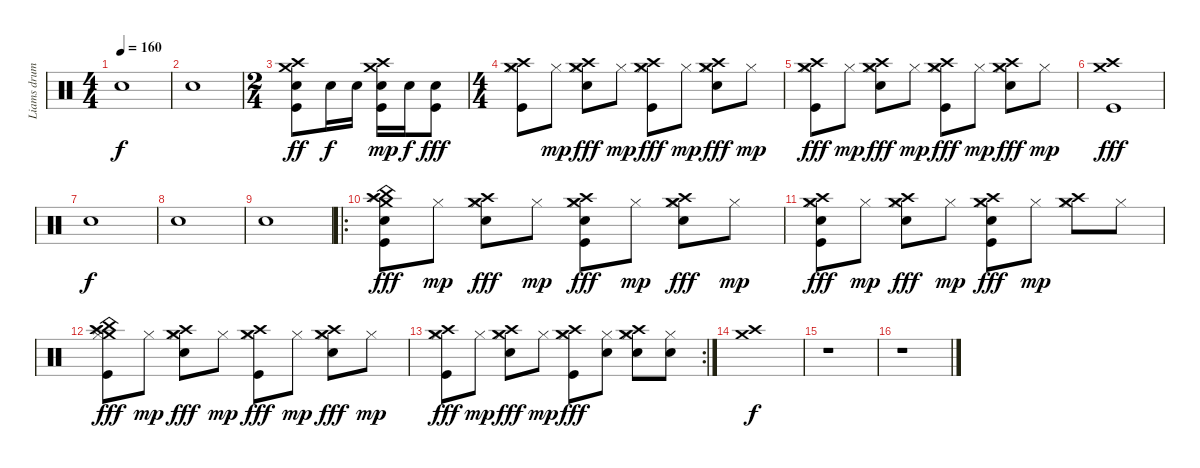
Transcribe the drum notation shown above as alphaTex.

\track ("Liams drums" "Liams drum") {instrument percussion}
\staff {score}
\articulation defaults
\ts (4 4)
\tempo 160
\clef neutral
\ks c "Snare (hit)"{x}.1{dy f}
|
"Snare (hit)"{x}.1 |
\ts (2 4)
("Crash high (hit)" "Crash medium (hit)" "Electric Snare (hit)" "Kick (hit)").8{dy ff} "Electric Snare (hit)".16{dy f} "Electric Snare (hit)".16 ("Crash high (hit)" "Crash medium (hit)" "Electric Snare (hit)" "Kick (hit)").16{dy mp} "Electric Snare (hit)".16{dy f} ("Electric Snare (hit)" "Kick (hit)").8{dy fff} |
\ts (4 4)
("Crash high (hit)" "Crash medium (hit)" "Hi-Hat (closed)" "Kick (hit)").8 "Hi-Hat (closed)".8{dy mp} ("Crash high (hit)" "Crash medium (hit)" "Hi-Hat (closed)" "Electric Snare (hit)").8{dy fff} "Hi-Hat (closed)".8{dy mp} ("Crash high (hit)" "Crash medium (hit)" "Hi-Hat (closed)" "Kick (hit)").8{dy fff} "Hi-Hat (closed)".8{dy mp} ("Crash high (hit)" "Crash medium (hit)" "Hi-Hat (closed)" "Electric Snare (hit)").8{dy fff} "Hi-Hat (closed)".8{dy mp} |
("Crash high (hit)" "Crash medium (hit)" "Hi-Hat (closed)" "Kick (hit)").8{dy fff} "Hi-Hat (closed)".8{dy mp} ("Crash high (hit)" "Crash medium (hit)" "Hi-Hat (closed)" "Electric Snare (hit)").8{dy fff} "Hi-Hat (closed)".8{dy mp} ("Crash high (hit)" "Crash medium (hit)" "Hi-Hat (closed)" "Kick (hit)").8{dy fff} "Hi-Hat (closed)".8{dy mp} ("Crash high (hit)" "Crash medium (hit)" "Hi-Hat (closed)" "Electric Snare (hit)").8{dy fff} "Hi-Hat (closed)".8{dy mp} |
("Crash high (hit)" "Crash medium (hit)" "Kick (hit)").1{dy fff} |
"Snare (hit)"{x}.1{dy f} |
"Snare (hit)"{x}.1 |
"Snare (hit)"{x}.1 |
\ro
("Crash high (hit)" "Crash medium (hit)" "Electric Snare (hit)" "Splash (hit)" "China (hit)" "Kick (hit)").8{dy fff} "Hi-Hat (closed)".8{dy mp} ("Crash high (hit)" "Crash medium (hit)" "Hi-Hat (closed)" "Electric Snare (hit)").8{dy fff} "Hi-Hat (closed)".8{dy mp} ("Crash high (hit)" "Crash medium (hit)" "Hi-Hat (closed)" "Electric Snare (hit)" "Kick (hit)").8{dy fff} "Hi-Hat (closed)".8{dy mp} ("Crash high (hit)" "Crash medium (hit)" "Hi-Hat (closed)" "Electric Snare (hit)").8{dy fff} "Hi-Hat (closed)".8{dy mp} |
("Crash high (hit)" "Crash medium (hit)" "Hi-Hat (closed)" "Electric Snare (hit)" "Kick (hit)").8{dy fff} "Hi-Hat (closed)".8{dy mp} ("Crash high (hit)" "Crash medium (hit)" "Hi-Hat (closed)" "Electric Snare (hit)").8{dy fff} "Hi-Hat (closed)".8{dy mp} ("Crash high (hit)" "Crash medium (hit)" "Hi-Hat (closed)" "Electric Snare (hit)" "Kick (hit)").8{dy fff} "Hi-Hat (closed)".8{dy mp} ("Crash high (hit)" "Crash medium (hit)" "Hi-Hat (closed)").8 "Hi-Hat (closed)".8 |
("Crash high (hit)" "Crash medium (hit)" "Hi-Hat (closed)" "Splash (hit)" "China (hit)" "Kick (hit)").8{dy fff} "Hi-Hat (closed)".8{dy mp} ("Crash high (hit)" "Crash medium (hit)" "Hi-Hat (closed)" "Electric Snare (hit)").8{dy fff} "Hi-Hat (closed)".8{dy mp} ("Crash high (hit)" "Crash medium (hit)" "Hi-Hat (closed)" "Kick (hit)").8{dy fff} "Hi-Hat (closed)".8{dy mp} ("Crash high (hit)" "Crash medium (hit)" "Hi-Hat (closed)" "Electric Snare (hit)").8{dy fff} "Hi-Hat (closed)".8{dy mp} |
\rc 2
("Crash high (hit)" "Crash medium (hit)" "Hi-Hat (closed)" "Kick (hit)").8{dy fff} "Hi-Hat (closed)".8{dy mp} ("Crash high (hit)" "Crash medium (hit)" "Hi-Hat (closed)" "Electric Snare (hit)").8{dy fff} "Hi-Hat (closed)".8{dy mp} ("Crash high (hit)" "Crash medium (hit)" "Hi-Hat (closed)" "Kick (hit)").8{dy fff} ("Hi-Hat (closed)" "Electric Snare (hit)").8 ("Crash high (hit)" "Crash medium (hit)" "Hi-Hat (closed)" "Electric Snare (hit)").8 ("Hi-Hat (closed)" "Electric Snare (hit)").8 |
("Crash high (hit)" "Crash medium (hit)").1{dy f} |
r.1 |
r.1
